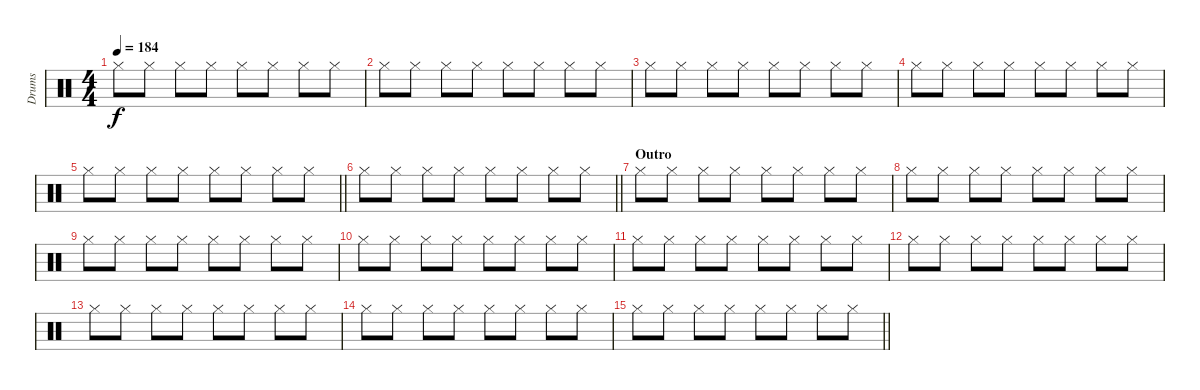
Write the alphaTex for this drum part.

\track ("Drums" "Drums") {instrument percussion}
\staff {score}
\articulation defaults
\ts (4 4)
\tempo 184
\clef neutral
\ks c "Hi-Hat (closed)".8{dy f} "Hi-Hat (closed)".8 "Hi-Hat (closed)".8 "Hi-Hat (closed)".8 "Hi-Hat (closed)".8 "Hi-Hat (closed)".8 "Hi-Hat (closed)".8 "Hi-Hat (closed)".8
|
"Hi-Hat (closed)".8 "Hi-Hat (closed)".8 "Hi-Hat (closed)".8 "Hi-Hat (closed)".8 "Hi-Hat (closed)".8 "Hi-Hat (closed)".8 "Hi-Hat (closed)".8 "Hi-Hat (closed)".8 |
"Hi-Hat (closed)".8 "Hi-Hat (closed)".8 "Hi-Hat (closed)".8 "Hi-Hat (closed)".8 "Hi-Hat (closed)".8 "Hi-Hat (closed)".8 "Hi-Hat (closed)".8 "Hi-Hat (closed)".8 |
"Hi-Hat (closed)".8 "Hi-Hat (closed)".8 "Hi-Hat (closed)".8 "Hi-Hat (closed)".8 "Hi-Hat (closed)".8 "Hi-Hat (closed)".8 "Hi-Hat (closed)".8 "Hi-Hat (closed)".8 |
\barLineRight lightlight "Hi-Hat (closed)".8 "Hi-Hat (closed)".8 "Hi-Hat (closed)".8 "Hi-Hat (closed)".8 "Hi-Hat (closed)".8 "Hi-Hat (closed)".8 "Hi-Hat (closed)".8 "Hi-Hat (closed)".8
|
\barLineRight lightlight "Hi-Hat (closed)".8 "Hi-Hat (closed)".8 "Hi-Hat (closed)".8 "Hi-Hat (closed)".8 "Hi-Hat (closed)".8 "Hi-Hat (closed)".8 "Hi-Hat (closed)".8 "Hi-Hat (closed)".8
|
\section ("" "Outro")
"Hi-Hat (closed)".8 "Hi-Hat (closed)".8 "Hi-Hat (closed)".8 "Hi-Hat (closed)".8 "Hi-Hat (closed)".8 "Hi-Hat (closed)".8 "Hi-Hat (closed)".8 "Hi-Hat (closed)".8 |
"Hi-Hat (closed)".8 "Hi-Hat (closed)".8 "Hi-Hat (closed)".8 "Hi-Hat (closed)".8 "Hi-Hat (closed)".8 "Hi-Hat (closed)".8 "Hi-Hat (closed)".8 "Hi-Hat (closed)".8 |
"Hi-Hat (closed)".8 "Hi-Hat (closed)".8 "Hi-Hat (closed)".8 "Hi-Hat (closed)".8 "Hi-Hat (closed)".8 "Hi-Hat (closed)".8 "Hi-Hat (closed)".8 "Hi-Hat (closed)".8 |
"Hi-Hat (closed)".8 "Hi-Hat (closed)".8 "Hi-Hat (closed)".8 "Hi-Hat (closed)".8 "Hi-Hat (closed)".8 "Hi-Hat (closed)".8 "Hi-Hat (closed)".8 "Hi-Hat (closed)".8 |
"Hi-Hat (closed)".8 "Hi-Hat (closed)".8 "Hi-Hat (closed)".8 "Hi-Hat (closed)".8 "Hi-Hat (closed)".8 "Hi-Hat (closed)".8 "Hi-Hat (closed)".8 "Hi-Hat (closed)".8 |
"Hi-Hat (closed)".8 "Hi-Hat (closed)".8 "Hi-Hat (closed)".8 "Hi-Hat (closed)".8 "Hi-Hat (closed)".8 "Hi-Hat (closed)".8 "Hi-Hat (closed)".8 "Hi-Hat (closed)".8 |
"Hi-Hat (closed)".8 "Hi-Hat (closed)".8 "Hi-Hat (closed)".8 "Hi-Hat (closed)".8 "Hi-Hat (closed)".8 "Hi-Hat (closed)".8 "Hi-Hat (closed)".8 "Hi-Hat (closed)".8 |
"Hi-Hat (closed)".8 "Hi-Hat (closed)".8 "Hi-Hat (closed)".8 "Hi-Hat (closed)".8 "Hi-Hat (closed)".8 "Hi-Hat (closed)".8 "Hi-Hat (closed)".8 "Hi-Hat (closed)".8 |
\barLineRight lightlight "Hi-Hat (closed)".8 "Hi-Hat (closed)".8 "Hi-Hat (closed)".8 "Hi-Hat (closed)".8 "Hi-Hat (closed)".8 "Hi-Hat (closed)".8 "Hi-Hat (closed)".8 "Hi-Hat (closed)".8
